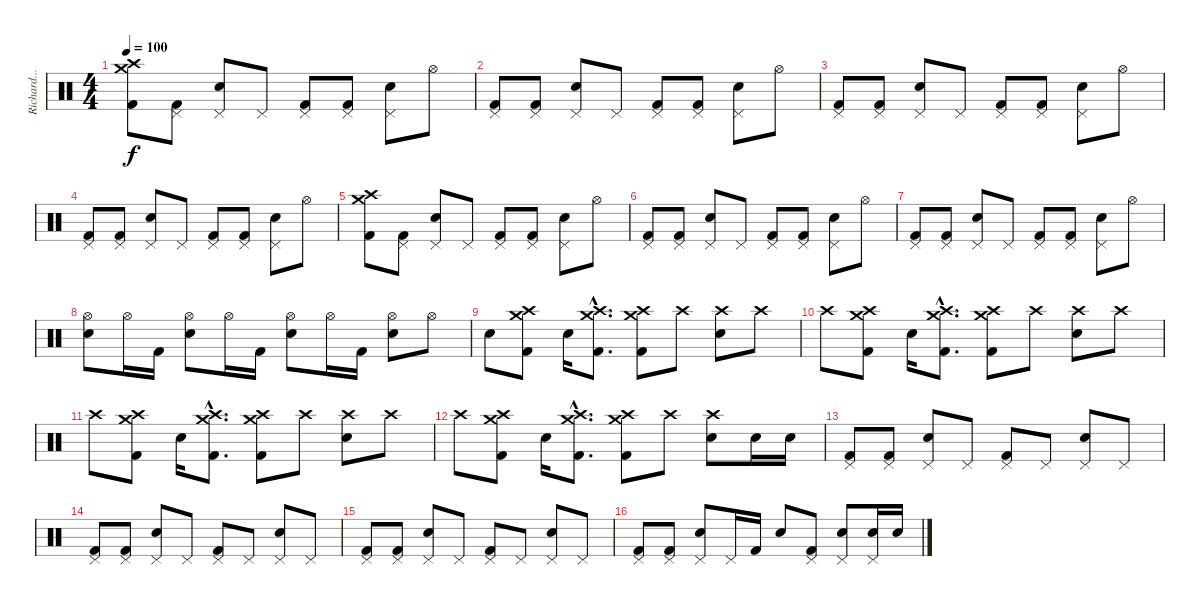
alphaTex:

\track ("Richard...clon..." "Richard...") {instrument percussion}
\staff {score}
\articulation defaults
\ts (4 4)
\tempo 100
\clef neutral
\ks c
("Crash medium (hit)" "Crash high (hit)" "Kick (hit) 2").8{dy f} ("Pedal Hi-Hat (hit)" "Kick (hit) 2").8 ("Pedal Hi-Hat (hit)" "Snare (hit) 2").8 "Pedal Hi-Hat (hit)".8 ("Pedal Hi-Hat (hit)" "Kick (hit) 2").8 ("Pedal Hi-Hat (hit)" "Kick (hit) 2").8 ("Pedal Hi-Hat (hit)" "Snare (hit) 2").8 "Hi-Hat (open)".8 |
("Pedal Hi-Hat (hit)" "Kick (hit) 2").8 ("Pedal Hi-Hat (hit)" "Kick (hit) 2").8 ("Pedal Hi-Hat (hit)" "Snare (hit) 2").8 "Pedal Hi-Hat (hit)".8 ("Pedal Hi-Hat (hit)" "Kick (hit) 2").8 ("Pedal Hi-Hat (hit)" "Kick (hit) 2").8 ("Pedal Hi-Hat (hit)" "Snare (hit) 2").8 "Hi-Hat (open)".8 |
("Pedal Hi-Hat (hit)" "Kick (hit) 2").8 ("Pedal Hi-Hat (hit)" "Kick (hit) 2").8 ("Pedal Hi-Hat (hit)" "Snare (hit) 2").8 "Pedal Hi-Hat (hit)".8 ("Pedal Hi-Hat (hit)" "Kick (hit) 2").8 ("Pedal Hi-Hat (hit)" "Kick (hit) 2").8 ("Pedal Hi-Hat (hit)" "Snare (hit) 2").8 "Hi-Hat (open)".8 |
("Pedal Hi-Hat (hit)" "Kick (hit) 2").8 ("Pedal Hi-Hat (hit)" "Kick (hit) 2").8 ("Pedal Hi-Hat (hit)" "Snare (hit) 2").8 "Pedal Hi-Hat (hit)".8 ("Pedal Hi-Hat (hit)" "Kick (hit) 2").8 ("Pedal Hi-Hat (hit)" "Kick (hit) 2").8 ("Pedal Hi-Hat (hit)" "Snare (hit) 2").8 "Hi-Hat (open)".8 |
("Crash medium (hit)" "Crash high (hit)" "Kick (hit) 2").8 ("Pedal Hi-Hat (hit)" "Kick (hit) 2").8 ("Pedal Hi-Hat (hit)" "Snare (hit) 2").8 "Pedal Hi-Hat (hit)".8 ("Pedal Hi-Hat (hit)" "Kick (hit) 2").8 ("Pedal Hi-Hat (hit)" "Kick (hit) 2").8 ("Pedal Hi-Hat (hit)" "Snare (hit) 2").8 "Hi-Hat (open)".8 |
("Pedal Hi-Hat (hit)" "Kick (hit) 2").8 ("Pedal Hi-Hat (hit)" "Kick (hit) 2").8 ("Pedal Hi-Hat (hit)" "Snare (hit) 2").8 "Pedal Hi-Hat (hit)".8 ("Pedal Hi-Hat (hit)" "Kick (hit) 2").8 ("Pedal Hi-Hat (hit)" "Kick (hit) 2").8 ("Pedal Hi-Hat (hit)" "Snare (hit) 2").8 "Hi-Hat (open)".8 |
("Pedal Hi-Hat (hit)" "Kick (hit) 2").8 ("Pedal Hi-Hat (hit)" "Kick (hit) 2").8 ("Pedal Hi-Hat (hit)" "Snare (hit) 2").8 "Pedal Hi-Hat (hit)".8 ("Pedal Hi-Hat (hit)" "Kick (hit) 2").8 ("Pedal Hi-Hat (hit)" "Kick (hit) 2").8 ("Pedal Hi-Hat (hit)" "Snare (hit) 2").8 "Hi-Hat (open)".8 |
("Hi-Hat (open)" "Snare (hit) 2").8 "Hi-Hat (open)".16 "Kick (hit) 2".16 ("Hi-Hat (open)" "Snare (hit) 2").8 "Hi-Hat (open)".16 "Kick (hit) 2".16 ("Hi-Hat (open)" "Snare (hit) 2").8 "Hi-Hat (open)".16 "Kick (hit) 2".16 ("Hi-Hat (open)" "Snare (hit) 2").8 "Hi-Hat (open)".8 |
"Snare (hit) 2".8 ("Crash medium (hit)" "Crash high (hit)" "Kick (hit) 2").8 "Snare (hit) 2".16 ("Crash medium (hit)"{hac} "Crash high (hit)"{hac} "Kick (hit) 2"{hac}).8{d} ("Crash medium (hit)" "Crash high (hit)" "Kick (hit) 2").8 "Crash high (hit)".8 ("Crash high (hit)" "Snare (hit) 2").8 "Crash high (hit)".8 |
"Crash high (hit)".8 ("Crash medium (hit)" "Crash high (hit)" "Kick (hit) 2").8 "Snare (hit) 2".16 ("Crash medium (hit)"{hac} "Crash high (hit)"{hac} "Kick (hit) 2"{hac}).8{d} ("Crash medium (hit)" "Crash high (hit)" "Kick (hit) 2").8 "Crash high (hit)".8 ("Crash high (hit)" "Snare (hit) 2").8 "Crash high (hit)".8 |
"Crash high (hit)".8 ("Crash medium (hit)" "Crash high (hit)" "Kick (hit) 2").8 "Snare (hit) 2".16 ("Crash medium (hit)"{hac} "Crash high (hit)"{hac} "Kick (hit) 2"{hac}).8{d} ("Crash medium (hit)" "Crash high (hit)" "Kick (hit) 2").8 "Crash high (hit)".8 ("Crash high (hit)" "Snare (hit) 2").8 "Crash high (hit)".8 |
"Crash high (hit)".8 ("Crash medium (hit)" "Crash high (hit)" "Kick (hit) 2").8 "Snare (hit) 2".16 ("Crash medium (hit)"{hac} "Crash high (hit)"{hac} "Kick (hit) 2"{hac}).8{d} ("Crash medium (hit)" "Crash high (hit)" "Kick (hit) 2").8 "Crash high (hit)".8 ("Crash high (hit)" "Snare (hit) 2").8 "Snare (hit) 2".16 "Snare (hit) 2".16 |
("Pedal Hi-Hat (hit)" "Kick (hit) 2").8 ("Pedal Hi-Hat (hit)" "Kick (hit) 2").8 ("Pedal Hi-Hat (hit)" "Snare (hit) 2").8 "Pedal Hi-Hat (hit)".8 ("Pedal Hi-Hat (hit)" "Kick (hit) 2").8 "Pedal Hi-Hat (hit)".8 ("Pedal Hi-Hat (hit)" "Snare (hit) 2").8 "Pedal Hi-Hat (hit)".8 |
("Pedal Hi-Hat (hit)" "Kick (hit) 2").8 ("Pedal Hi-Hat (hit)" "Kick (hit) 2").8 ("Pedal Hi-Hat (hit)" "Snare (hit) 2").8 "Pedal Hi-Hat (hit)".8 ("Pedal Hi-Hat (hit)" "Kick (hit) 2").8 "Pedal Hi-Hat (hit)".8 ("Pedal Hi-Hat (hit)" "Snare (hit) 2").8 "Pedal Hi-Hat (hit)".8 |
("Pedal Hi-Hat (hit)" "Kick (hit) 2").8 ("Pedal Hi-Hat (hit)" "Kick (hit) 2").8 ("Pedal Hi-Hat (hit)" "Snare (hit) 2").8 "Pedal Hi-Hat (hit)".8 ("Pedal Hi-Hat (hit)" "Kick (hit) 2").8 "Pedal Hi-Hat (hit)".8 ("Pedal Hi-Hat (hit)" "Snare (hit) 2").8 "Pedal Hi-Hat (hit)".8 |
("Pedal Hi-Hat (hit)" "Kick (hit) 2").8 ("Pedal Hi-Hat (hit)" "Kick (hit) 2").8 ("Pedal Hi-Hat (hit)" "Snare (hit) 2").8 "Pedal Hi-Hat (hit)".16 "Kick (hit) 2".16 "Snare (hit) 2".8 ("Pedal Hi-Hat (hit)" "Kick (hit) 2").8 ("Pedal Hi-Hat (hit)" "Snare (hit) 2").8 ("Pedal Hi-Hat (hit)" "Snare (hit) 2").16 "Snare (hit) 2".16
